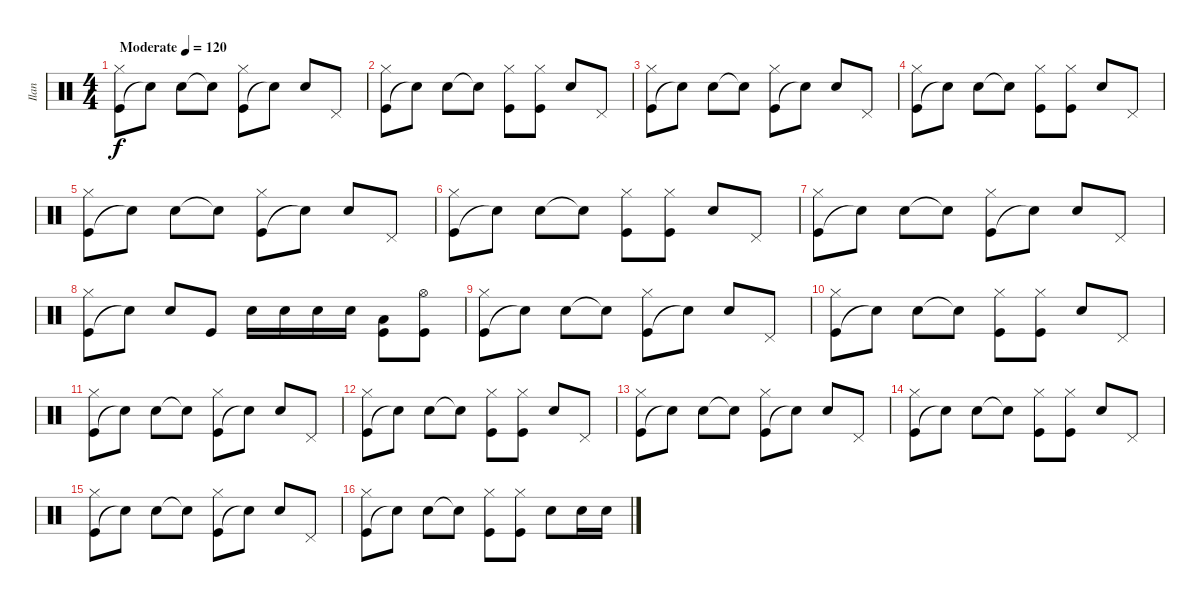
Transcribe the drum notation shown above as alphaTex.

\track ("Ilan" "Ilan") {instrument percussion}
\staff {score}
\articulation defaults
\ts (4 4)
\tempo (120 "Moderate")
\clef neutral
\ks c
("Kick (hit)" "Hi-Hat (closed)").8{dy f} "Snare (hit)"{t}.8 "Electric Snare (hit)".8 "Snare (hit)"{t}.8 ("Kick (hit)" "Hi-Hat (closed)").8 "Snare (hit)"{t}.8 "Electric Snare (hit)".8 "Pedal Hi-Hat (hit)".8 |
("Kick (hit)" "Hi-Hat (closed)").8 "Snare (hit)"{t}.8 "Electric Snare (hit)".8 "Snare (hit)"{t}.8 ("Kick (hit)" "Hi-Hat (closed)").8 ("Kick (hit)" "Hi-Hat (closed)").8 "Electric Snare (hit)".8 "Pedal Hi-Hat (hit)".8 |
("Kick (hit)" "Hi-Hat (closed)").8 "Snare (hit)"{t}.8 "Electric Snare (hit)".8 "Snare (hit)"{t}.8 ("Kick (hit)" "Hi-Hat (closed)").8 "Snare (hit)"{t}.8 "Electric Snare (hit)".8 "Pedal Hi-Hat (hit)".8 |
("Kick (hit)" "Hi-Hat (closed)").8 "Snare (hit)"{t}.8 "Electric Snare (hit)".8 "Snare (hit)"{t}.8 ("Kick (hit)" "Hi-Hat (closed)").8 ("Kick (hit)" "Hi-Hat (closed)").8 "Electric Snare (hit)".8 "Pedal Hi-Hat (hit)".8 |
("Kick (hit)" "Hi-Hat (closed)").8 "Snare (hit)"{t}.8 "Electric Snare (hit)".8 "Snare (hit)"{t}.8 ("Kick (hit)" "Hi-Hat (closed)").8 "Snare (hit)"{t}.8 "Electric Snare (hit)".8 "Pedal Hi-Hat (hit)".8 |
("Kick (hit)" "Hi-Hat (closed)").8 "Snare (hit)"{t}.8 "Electric Snare (hit)".8 "Snare (hit)"{t}.8 ("Kick (hit)" "Hi-Hat (closed)").8 ("Kick (hit)" "Hi-Hat (closed)").8 "Electric Snare (hit)".8 "Pedal Hi-Hat (hit)".8 |
("Kick (hit)" "Hi-Hat (closed)").8 "Snare (hit)"{t}.8 "Electric Snare (hit)".8 "Snare (hit)"{t}.8 ("Kick (hit)" "Hi-Hat (closed)").8 "Snare (hit)"{t}.8 "Electric Snare (hit)".8 "Pedal Hi-Hat (hit)".8 |
("Kick (hit)" "Hi-Hat (closed)").8 "Snare (hit)"{t}.8 "Electric Snare (hit)".8 "Kick (hit)".8 "Electric Snare (hit)".16 "Electric Snare (hit)".16 "Electric Snare (hit)".16 "Electric Snare (hit)".16 ("Low Tom (hit)" "Kick (hit)").8 ("Hi-Hat (open)" "Kick (hit)").8 |
("Kick (hit)" "Hi-Hat (closed)").8 "Snare (hit)"{t}.8 "Electric Snare (hit)".8 "Snare (hit)"{t}.8 ("Kick (hit)" "Hi-Hat (closed)").8 "Snare (hit)"{t}.8 "Electric Snare (hit)".8 "Pedal Hi-Hat (hit)".8 |
("Kick (hit)" "Hi-Hat (closed)").8 "Snare (hit)"{t}.8 "Electric Snare (hit)".8 "Snare (hit)"{t}.8 ("Kick (hit)" "Hi-Hat (closed)").8 ("Kick (hit)" "Hi-Hat (closed)").8 "Electric Snare (hit)".8 "Pedal Hi-Hat (hit)".8 |
("Kick (hit)" "Hi-Hat (closed)").8 "Snare (hit)"{t}.8 "Electric Snare (hit)".8 "Snare (hit)"{t}.8 ("Kick (hit)" "Hi-Hat (closed)").8 "Snare (hit)"{t}.8 "Electric Snare (hit)".8 "Pedal Hi-Hat (hit)".8 |
("Kick (hit)" "Hi-Hat (closed)").8 "Snare (hit)"{t}.8 "Electric Snare (hit)".8 "Snare (hit)"{t}.8 ("Kick (hit)" "Hi-Hat (closed)").8 ("Kick (hit)" "Hi-Hat (closed)").8 "Electric Snare (hit)".8 "Pedal Hi-Hat (hit)".8 |
("Kick (hit)" "Hi-Hat (closed)").8 "Snare (hit)"{t}.8 "Electric Snare (hit)".8 "Snare (hit)"{t}.8 ("Kick (hit)" "Hi-Hat (closed)").8 "Snare (hit)"{t}.8 "Electric Snare (hit)".8 "Pedal Hi-Hat (hit)".8 |
("Kick (hit)" "Hi-Hat (closed)").8 "Snare (hit)"{t}.8 "Electric Snare (hit)".8 "Snare (hit)"{t}.8 ("Kick (hit)" "Hi-Hat (closed)").8 ("Kick (hit)" "Hi-Hat (closed)").8 "Electric Snare (hit)".8 "Pedal Hi-Hat (hit)".8 |
("Kick (hit)" "Hi-Hat (closed)").8 "Snare (hit)"{t}.8 "Electric Snare (hit)".8 "Snare (hit)"{t}.8 ("Kick (hit)" "Hi-Hat (closed)").8 "Snare (hit)"{t}.8 "Electric Snare (hit)".8 "Pedal Hi-Hat (hit)".8 |
("Kick (hit)" "Hi-Hat (closed)").8 "Snare (hit)"{t}.8 "Electric Snare (hit)".8 "Snare (hit)"{t}.8 ("Kick (hit)" "Hi-Hat (closed)").8 ("Kick (hit)" "Hi-Hat (closed)").8 "Electric Snare (hit)".8 "Electric Snare (hit)".16 "Electric Snare (hit)".16
